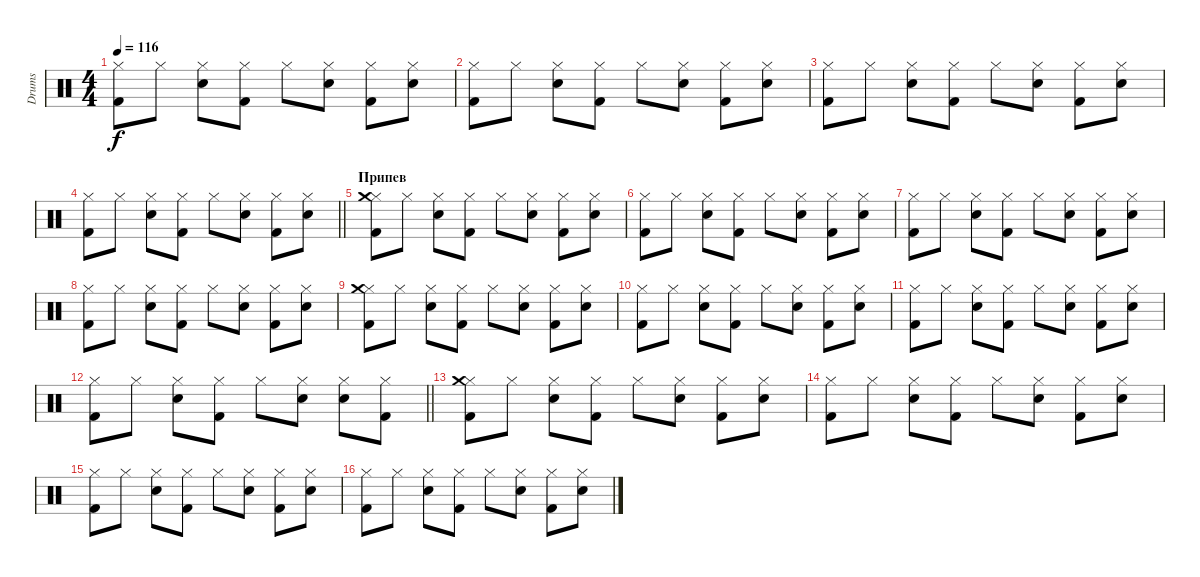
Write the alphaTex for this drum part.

\track ("Drums" "Drums") {instrument percussion}
\staff {score}
\articulation defaults
\ts (4 4)
\tempo 116
\clef neutral
\ks c
("Hi-Hat (closed)" "Kick (hit) 2").8{dy f} "Hi-Hat (closed)".8 ("Hi-Hat (closed)" "Electric Snare (hit)").8 ("Hi-Hat (closed)" "Kick (hit) 2").8 "Hi-Hat (closed)".8 ("Hi-Hat (closed)" "Electric Snare (hit)").8 ("Hi-Hat (closed)" "Kick (hit) 2").8 ("Hi-Hat (closed)" "Electric Snare (hit)").8 |
("Hi-Hat (closed)" "Kick (hit) 2").8 "Hi-Hat (closed)".8 ("Hi-Hat (closed)" "Electric Snare (hit)").8 ("Hi-Hat (closed)" "Kick (hit) 2").8 "Hi-Hat (closed)".8 ("Hi-Hat (closed)" "Electric Snare (hit)").8 ("Hi-Hat (closed)" "Kick (hit) 2").8 ("Hi-Hat (closed)" "Electric Snare (hit)").8 |
("Hi-Hat (closed)" "Kick (hit) 2").8 "Hi-Hat (closed)".8 ("Hi-Hat (closed)" "Electric Snare (hit)").8 ("Hi-Hat (closed)" "Kick (hit) 2").8 "Hi-Hat (closed)".8 ("Hi-Hat (closed)" "Electric Snare (hit)").8 ("Hi-Hat (closed)" "Kick (hit) 2").8 ("Hi-Hat (closed)" "Electric Snare (hit)").8 |
\barLineRight lightlight
("Hi-Hat (closed)" "Kick (hit) 2").8 "Hi-Hat (closed)".8 ("Hi-Hat (closed)" "Electric Snare (hit)").8 ("Hi-Hat (closed)" "Kick (hit) 2").8 "Hi-Hat (closed)".8 ("Hi-Hat (closed)" "Electric Snare (hit)").8 ("Hi-Hat (closed)" "Kick (hit) 2").8 ("Hi-Hat (closed)" "Electric Snare (hit)").8 |
\section ("" "Припев")
("Hi-Hat (closed)" "Kick (hit) 2" "Crash medium (hit)").8 "Hi-Hat (closed)".8 ("Hi-Hat (closed)" "Electric Snare (hit)").8 ("Hi-Hat (closed)" "Kick (hit) 2").8 "Hi-Hat (closed)".8 ("Hi-Hat (closed)" "Electric Snare (hit)").8 ("Hi-Hat (closed)" "Kick (hit) 2").8 ("Hi-Hat (closed)" "Electric Snare (hit)").8 |
("Hi-Hat (closed)" "Kick (hit) 2").8 "Hi-Hat (closed)".8 ("Hi-Hat (closed)" "Electric Snare (hit)").8 ("Hi-Hat (closed)" "Kick (hit) 2").8 "Hi-Hat (closed)".8 ("Hi-Hat (closed)" "Electric Snare (hit)").8 ("Hi-Hat (closed)" "Kick (hit) 2").8 ("Hi-Hat (closed)" "Electric Snare (hit)").8 |
("Hi-Hat (closed)" "Kick (hit) 2").8 "Hi-Hat (closed)".8 ("Hi-Hat (closed)" "Electric Snare (hit)").8 ("Hi-Hat (closed)" "Kick (hit) 2").8 "Hi-Hat (closed)".8 ("Hi-Hat (closed)" "Electric Snare (hit)").8 ("Hi-Hat (closed)" "Kick (hit) 2").8 ("Hi-Hat (closed)" "Electric Snare (hit)").8 |
("Hi-Hat (closed)" "Kick (hit) 2").8 "Hi-Hat (closed)".8 ("Hi-Hat (closed)" "Electric Snare (hit)").8 ("Hi-Hat (closed)" "Kick (hit) 2").8 "Hi-Hat (closed)".8 ("Hi-Hat (closed)" "Electric Snare (hit)").8 ("Hi-Hat (closed)" "Kick (hit) 2").8 ("Hi-Hat (closed)" "Electric Snare (hit)").8 |
("Hi-Hat (closed)" "Kick (hit) 2" "Crash medium (hit)").8 "Hi-Hat (closed)".8 ("Hi-Hat (closed)" "Electric Snare (hit)").8 ("Hi-Hat (closed)" "Kick (hit) 2").8 "Hi-Hat (closed)".8 ("Hi-Hat (closed)" "Electric Snare (hit)").8 ("Hi-Hat (closed)" "Kick (hit) 2").8 ("Hi-Hat (closed)" "Electric Snare (hit)").8 |
("Hi-Hat (closed)" "Kick (hit) 2").8 "Hi-Hat (closed)".8 ("Hi-Hat (closed)" "Electric Snare (hit)").8 ("Hi-Hat (closed)" "Kick (hit) 2").8 "Hi-Hat (closed)".8 ("Hi-Hat (closed)" "Electric Snare (hit)").8 ("Hi-Hat (closed)" "Kick (hit) 2").8 ("Hi-Hat (closed)" "Electric Snare (hit)").8 |
("Hi-Hat (closed)" "Kick (hit) 2").8 "Hi-Hat (closed)".8 ("Hi-Hat (closed)" "Electric Snare (hit)").8 ("Hi-Hat (closed)" "Kick (hit) 2").8 "Hi-Hat (closed)".8 ("Hi-Hat (closed)" "Electric Snare (hit)").8 ("Hi-Hat (closed)" "Kick (hit) 2").8 ("Hi-Hat (closed)" "Electric Snare (hit)").8 |
\barLineRight lightlight
("Hi-Hat (closed)" "Kick (hit) 2").8 "Hi-Hat (closed)".8 ("Hi-Hat (closed)" "Electric Snare (hit)").8 ("Hi-Hat (closed)" "Kick (hit) 2").8 "Hi-Hat (closed)".8 ("Hi-Hat (closed)" "Electric Snare (hit)").8 ("Hi-Hat (closed)" "Electric Snare (hit)").8 ("Hi-Hat (closed)" "Kick (hit) 2").8 |
("Hi-Hat (closed)" "Kick (hit) 2" "Crash medium (hit)").8 "Hi-Hat (closed)".8 ("Hi-Hat (closed)" "Electric Snare (hit)").8 ("Hi-Hat (closed)" "Kick (hit) 2").8 "Hi-Hat (closed)".8 ("Hi-Hat (closed)" "Electric Snare (hit)").8 ("Hi-Hat (closed)" "Kick (hit) 2").8 ("Hi-Hat (closed)" "Electric Snare (hit)").8 |
("Hi-Hat (closed)" "Kick (hit) 2").8 "Hi-Hat (closed)".8 ("Hi-Hat (closed)" "Electric Snare (hit)").8 ("Hi-Hat (closed)" "Kick (hit) 2").8 "Hi-Hat (closed)".8 ("Hi-Hat (closed)" "Electric Snare (hit)").8 ("Hi-Hat (closed)" "Kick (hit) 2").8 ("Hi-Hat (closed)" "Electric Snare (hit)").8 |
("Hi-Hat (closed)" "Kick (hit) 2").8 "Hi-Hat (closed)".8 ("Hi-Hat (closed)" "Electric Snare (hit)").8 ("Hi-Hat (closed)" "Kick (hit) 2").8 "Hi-Hat (closed)".8 ("Hi-Hat (closed)" "Electric Snare (hit)").8 ("Hi-Hat (closed)" "Kick (hit) 2").8 ("Hi-Hat (closed)" "Electric Snare (hit)").8 |
("Hi-Hat (closed)" "Kick (hit) 2").8 "Hi-Hat (closed)".8 ("Hi-Hat (closed)" "Electric Snare (hit)").8 ("Hi-Hat (closed)" "Kick (hit) 2").8 "Hi-Hat (closed)".8 ("Hi-Hat (closed)" "Electric Snare (hit)").8 ("Hi-Hat (closed)" "Kick (hit) 2").8 ("Hi-Hat (closed)" "Electric Snare (hit)").8
